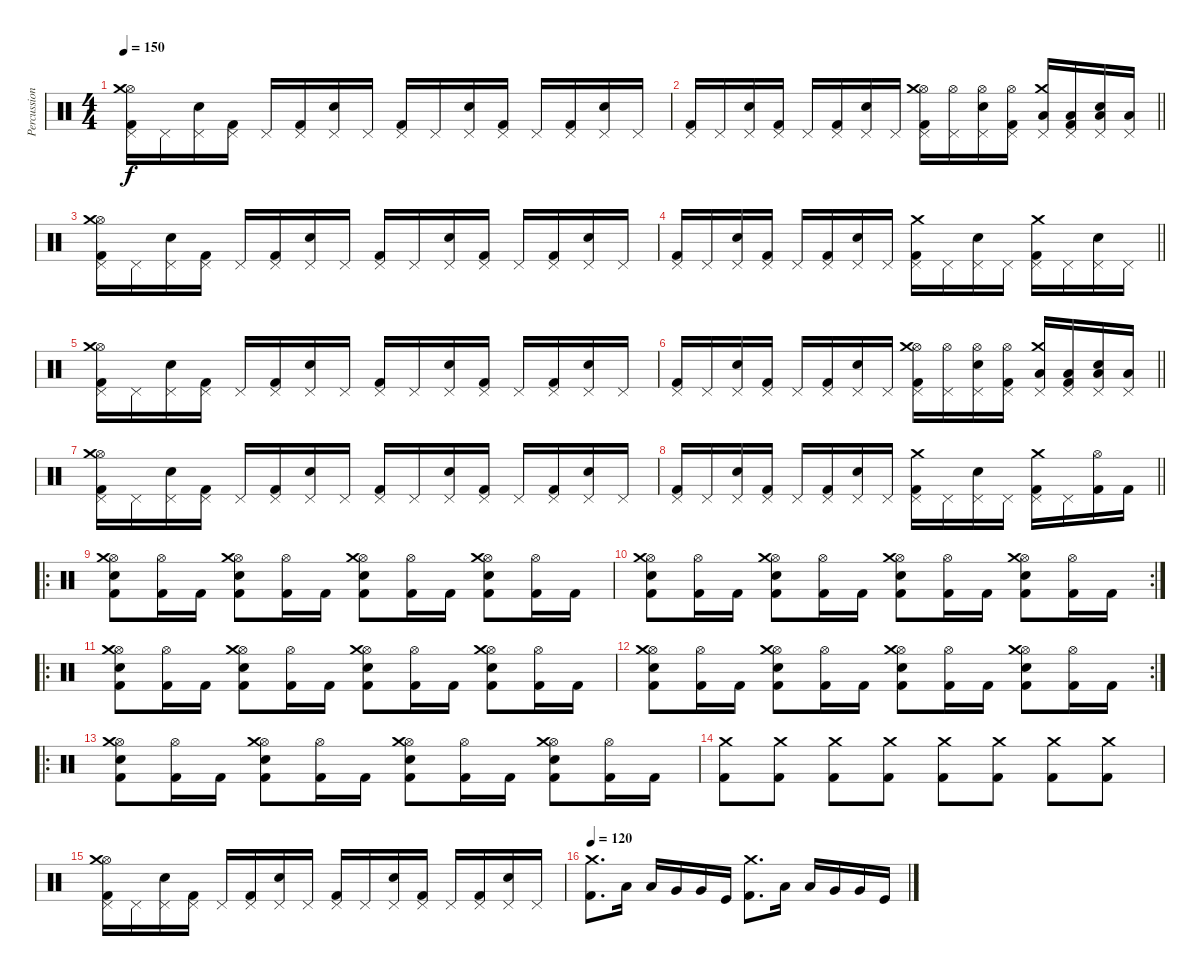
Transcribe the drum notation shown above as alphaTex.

\track ("Percussion" "Percussion") {instrument percussion}
\staff {score}
\articulation defaults
\ts (4 4)
\tempo 150
\clef neutral
\ks c
("Pedal Hi-Hat (hit)" "Kick (hit) 2" "Hi-Hat (open)" "Crash medium (hit)").16{dy f} "Pedal Hi-Hat (hit)".16 ("Pedal Hi-Hat (hit)" "Snare (hit) 2").16 ("Pedal Hi-Hat (hit)" "Kick (hit) 2").16 "Pedal Hi-Hat (hit)".16 ("Pedal Hi-Hat (hit)" "Kick (hit) 2").16 ("Pedal Hi-Hat (hit)" "Snare (hit) 2").16 "Pedal Hi-Hat (hit)".16 ("Pedal Hi-Hat (hit)" "Kick (hit) 2").16 "Pedal Hi-Hat (hit)".16 ("Pedal Hi-Hat (hit)" "Snare (hit) 2").16 ("Pedal Hi-Hat (hit)" "Kick (hit) 2").16 "Pedal Hi-Hat (hit)".16 ("Pedal Hi-Hat (hit)" "Kick (hit) 2").16 ("Pedal Hi-Hat (hit)" "Snare (hit) 2").16 "Pedal Hi-Hat (hit)".16 |
\barLineRight lightlight
("Pedal Hi-Hat (hit)" "Kick (hit) 2").16 "Pedal Hi-Hat (hit)".16 ("Pedal Hi-Hat (hit)" "Snare (hit) 2").16 ("Pedal Hi-Hat (hit)" "Kick (hit) 2").16 "Pedal Hi-Hat (hit)".16 ("Pedal Hi-Hat (hit)" "Kick (hit) 2").16 ("Pedal Hi-Hat (hit)" "Snare (hit) 2").16 "Pedal Hi-Hat (hit)".16 ("Pedal Hi-Hat (hit)" "Kick (hit) 2" "Hi-Hat (open)" "Crash medium (hit)").16 ("Pedal Hi-Hat (hit)" "Hi-Hat (open)").16 ("Pedal Hi-Hat (hit)" "Snare (hit) 2" "Hi-Hat (open)").16 ("Pedal Hi-Hat (hit)" "Kick (hit) 2" "Hi-Hat (open)").16 ("Pedal Hi-Hat (hit)" "Low Tom (hit)" "Crash medium (hit)").16 ("Pedal Hi-Hat (hit)" "Kick (hit) 2" "Low Tom (hit)").16 ("Pedal Hi-Hat (hit)" "Snare (hit) 2" "Low Tom (hit)").16 ("Pedal Hi-Hat (hit)" "Low Tom (hit)").16 |
("Pedal Hi-Hat (hit)" "Kick (hit) 2" "Hi-Hat (open)" "Crash medium (hit)").16 "Pedal Hi-Hat (hit)".16 ("Pedal Hi-Hat (hit)" "Snare (hit) 2").16 ("Pedal Hi-Hat (hit)" "Kick (hit) 2").16 "Pedal Hi-Hat (hit)".16 ("Pedal Hi-Hat (hit)" "Kick (hit) 2").16 ("Pedal Hi-Hat (hit)" "Snare (hit) 2").16 "Pedal Hi-Hat (hit)".16 ("Pedal Hi-Hat (hit)" "Kick (hit) 2").16 "Pedal Hi-Hat (hit)".16 ("Pedal Hi-Hat (hit)" "Snare (hit) 2").16 ("Pedal Hi-Hat (hit)" "Kick (hit) 2").16 "Pedal Hi-Hat (hit)".16 ("Pedal Hi-Hat (hit)" "Kick (hit) 2").16 ("Pedal Hi-Hat (hit)" "Snare (hit) 2").16 "Pedal Hi-Hat (hit)".16 |
\barLineRight lightlight
("Pedal Hi-Hat (hit)" "Kick (hit) 2").16 "Pedal Hi-Hat (hit)".16 ("Pedal Hi-Hat (hit)" "Snare (hit) 2").16 ("Pedal Hi-Hat (hit)" "Kick (hit) 2").16 "Pedal Hi-Hat (hit)".16 ("Pedal Hi-Hat (hit)" "Kick (hit) 2").16 ("Pedal Hi-Hat (hit)" "Snare (hit) 2").16 "Pedal Hi-Hat (hit)".16 ("Pedal Hi-Hat (hit)" "Kick (hit) 2" "Crash medium (hit)").16 "Pedal Hi-Hat (hit)".16 ("Pedal Hi-Hat (hit)" "Snare (hit) 2").16 "Pedal Hi-Hat (hit)".16 ("Pedal Hi-Hat (hit)" "Kick (hit) 2" "Crash medium (hit)").16 "Pedal Hi-Hat (hit)".16 ("Pedal Hi-Hat (hit)" "Snare (hit) 2").16 "Pedal Hi-Hat (hit)".16 |
("Pedal Hi-Hat (hit)" "Kick (hit) 2" "Hi-Hat (open)" "Crash medium (hit)").16 "Pedal Hi-Hat (hit)".16 ("Pedal Hi-Hat (hit)" "Snare (hit) 2").16 ("Pedal Hi-Hat (hit)" "Kick (hit) 2").16 "Pedal Hi-Hat (hit)".16 ("Pedal Hi-Hat (hit)" "Kick (hit) 2").16 ("Pedal Hi-Hat (hit)" "Snare (hit) 2").16 "Pedal Hi-Hat (hit)".16 ("Pedal Hi-Hat (hit)" "Kick (hit) 2").16 "Pedal Hi-Hat (hit)".16 ("Pedal Hi-Hat (hit)" "Snare (hit) 2").16 ("Pedal Hi-Hat (hit)" "Kick (hit) 2").16 "Pedal Hi-Hat (hit)".16 ("Pedal Hi-Hat (hit)" "Kick (hit) 2").16 ("Pedal Hi-Hat (hit)" "Snare (hit) 2").16 "Pedal Hi-Hat (hit)".16 |
\barLineRight lightlight
("Pedal Hi-Hat (hit)" "Kick (hit) 2").16 "Pedal Hi-Hat (hit)".16 ("Pedal Hi-Hat (hit)" "Snare (hit) 2").16 ("Pedal Hi-Hat (hit)" "Kick (hit) 2").16 "Pedal Hi-Hat (hit)".16 ("Pedal Hi-Hat (hit)" "Kick (hit) 2").16 ("Pedal Hi-Hat (hit)" "Snare (hit) 2").16 "Pedal Hi-Hat (hit)".16 ("Pedal Hi-Hat (hit)" "Kick (hit) 2" "Hi-Hat (open)" "Crash medium (hit)").16 ("Pedal Hi-Hat (hit)" "Hi-Hat (open)").16 ("Pedal Hi-Hat (hit)" "Snare (hit) 2" "Hi-Hat (open)").16 ("Pedal Hi-Hat (hit)" "Kick (hit) 2" "Hi-Hat (open)").16 ("Pedal Hi-Hat (hit)" "Low Tom (hit)" "Crash medium (hit)").16 ("Pedal Hi-Hat (hit)" "Kick (hit) 2" "Low Tom (hit)").16 ("Pedal Hi-Hat (hit)" "Snare (hit) 2" "Low Tom (hit)").16 ("Pedal Hi-Hat (hit)" "Low Tom (hit)").16 |
("Pedal Hi-Hat (hit)" "Kick (hit) 2" "Hi-Hat (open)" "Crash medium (hit)").16 "Pedal Hi-Hat (hit)".16 ("Pedal Hi-Hat (hit)" "Snare (hit) 2").16 ("Pedal Hi-Hat (hit)" "Kick (hit) 2").16 "Pedal Hi-Hat (hit)".16 ("Pedal Hi-Hat (hit)" "Kick (hit) 2").16 ("Pedal Hi-Hat (hit)" "Snare (hit) 2").16 "Pedal Hi-Hat (hit)".16 ("Pedal Hi-Hat (hit)" "Kick (hit) 2").16 "Pedal Hi-Hat (hit)".16 ("Pedal Hi-Hat (hit)" "Snare (hit) 2").16 ("Pedal Hi-Hat (hit)" "Kick (hit) 2").16 "Pedal Hi-Hat (hit)".16 ("Pedal Hi-Hat (hit)" "Kick (hit) 2").16 ("Pedal Hi-Hat (hit)" "Snare (hit) 2").16 "Pedal Hi-Hat (hit)".16 |
\barLineRight lightlight
("Pedal Hi-Hat (hit)" "Kick (hit) 2").16 "Pedal Hi-Hat (hit)".16 ("Pedal Hi-Hat (hit)" "Snare (hit) 2").16 ("Pedal Hi-Hat (hit)" "Kick (hit) 2").16 "Pedal Hi-Hat (hit)".16 ("Pedal Hi-Hat (hit)" "Kick (hit) 2").16 ("Pedal Hi-Hat (hit)" "Snare (hit) 2").16 "Pedal Hi-Hat (hit)".16 ("Pedal Hi-Hat (hit)" "Kick (hit) 2" "Crash medium (hit)").16 "Pedal Hi-Hat (hit)".16 ("Pedal Hi-Hat (hit)" "Snare (hit) 2").16 "Pedal Hi-Hat (hit)".16 ("Pedal Hi-Hat (hit)" "Kick (hit) 2" "Crash medium (hit)").16 "Pedal Hi-Hat (hit)".16 ("Hi-Hat (open)" "Kick (hit) 2").16 "Kick (hit) 2".16 |
\ro
("Hi-Hat (open)" "Kick (hit) 2" "Snare (hit) 2" "Crash medium (hit)").8 ("Hi-Hat (open)" "Kick (hit) 2").16 "Kick (hit) 2".16 ("Hi-Hat (open)" "Kick (hit) 2" "Snare (hit) 2" "Crash medium (hit)").8 ("Hi-Hat (open)" "Kick (hit) 2").16 "Kick (hit) 2".16 ("Hi-Hat (open)" "Kick (hit) 2" "Snare (hit) 2" "Crash medium (hit)").8 ("Hi-Hat (open)" "Kick (hit) 2").16 "Kick (hit) 2".16 ("Hi-Hat (open)" "Kick (hit) 2" "Snare (hit) 2" "Crash medium (hit)").8 ("Hi-Hat (open)" "Kick (hit) 2").16 "Kick (hit) 2".16 |
\rc 2
("Hi-Hat (open)" "Kick (hit) 2" "Snare (hit) 2" "Crash medium (hit)").8 ("Hi-Hat (open)" "Kick (hit) 2").16 "Kick (hit) 2".16 ("Hi-Hat (open)" "Kick (hit) 2" "Snare (hit) 2" "Crash medium (hit)").8 ("Hi-Hat (open)" "Kick (hit) 2").16 "Kick (hit) 2".16 ("Hi-Hat (open)" "Kick (hit) 2" "Snare (hit) 2" "Crash medium (hit)").8 ("Hi-Hat (open)" "Kick (hit) 2").16 "Kick (hit) 2".16 ("Hi-Hat (open)" "Kick (hit) 2" "Snare (hit) 2" "Crash medium (hit)").8 ("Hi-Hat (open)" "Kick (hit) 2").16 "Kick (hit) 2".16 |
\ro
("Hi-Hat (open)" "Kick (hit) 2" "Snare (hit) 2" "Crash medium (hit)").8 ("Hi-Hat (open)" "Kick (hit) 2").16 "Kick (hit) 2".16 ("Hi-Hat (open)" "Kick (hit) 2" "Snare (hit) 2" "Crash medium (hit)").8 ("Hi-Hat (open)" "Kick (hit) 2").16 "Kick (hit) 2".16 ("Hi-Hat (open)" "Kick (hit) 2" "Snare (hit) 2" "Crash medium (hit)").8 ("Hi-Hat (open)" "Kick (hit) 2").16 "Kick (hit) 2".16 ("Hi-Hat (open)" "Kick (hit) 2" "Snare (hit) 2" "Crash medium (hit)").8 ("Hi-Hat (open)" "Kick (hit) 2").16 "Kick (hit) 2".16 |
\rc 2
("Hi-Hat (open)" "Kick (hit) 2" "Snare (hit) 2" "Crash medium (hit)").8 ("Hi-Hat (open)" "Kick (hit) 2").16 "Kick (hit) 2".16 ("Hi-Hat (open)" "Kick (hit) 2" "Snare (hit) 2" "Crash medium (hit)").8 ("Hi-Hat (open)" "Kick (hit) 2").16 "Kick (hit) 2".16 ("Hi-Hat (open)" "Kick (hit) 2" "Snare (hit) 2" "Crash medium (hit)").8 ("Hi-Hat (open)" "Kick (hit) 2").16 "Kick (hit) 2".16 ("Hi-Hat (open)" "Kick (hit) 2" "Snare (hit) 2" "Crash medium (hit)").8 ("Hi-Hat (open)" "Kick (hit) 2").16 "Kick (hit) 2".16 |
\ro
("Hi-Hat (open)" "Kick (hit) 2" "Snare (hit) 2" "Crash medium (hit)").8 ("Hi-Hat (open)" "Kick (hit) 2").16 "Kick (hit) 2".16 ("Hi-Hat (open)" "Kick (hit) 2" "Snare (hit) 2" "Crash medium (hit)").8 ("Hi-Hat (open)" "Kick (hit) 2").16 "Kick (hit) 2".16 ("Hi-Hat (open)" "Kick (hit) 2" "Snare (hit) 2" "Crash medium (hit)").8 ("Hi-Hat (open)" "Kick (hit) 2").16 "Kick (hit) 2".16 ("Hi-Hat (open)" "Kick (hit) 2" "Snare (hit) 2" "Crash medium (hit)").8 ("Hi-Hat (open)" "Kick (hit) 2").16 "Kick (hit) 2".16 |
("Kick (hit) 2" "Crash medium (hit)").8 ("Kick (hit) 2" "Crash medium (hit)").8 ("Kick (hit) 2" "Crash medium (hit)").8 ("Kick (hit) 2" "Crash medium (hit)").8 ("Kick (hit) 2" "Crash medium (hit)").8 ("Kick (hit) 2" "Crash medium (hit)").8 ("Kick (hit) 2" "Crash medium (hit)").8 ("Kick (hit) 2" "Crash medium (hit)").8 |
("Pedal Hi-Hat (hit)" "Kick (hit) 2" "Hi-Hat (open)" "Crash medium (hit)").16 "Pedal Hi-Hat (hit)".16 ("Pedal Hi-Hat (hit)" "Snare (hit) 2").16 ("Pedal Hi-Hat (hit)" "Kick (hit) 2").16 "Pedal Hi-Hat (hit)".16 ("Pedal Hi-Hat (hit)" "Kick (hit) 2").16 ("Pedal Hi-Hat (hit)" "Snare (hit) 2").16 "Pedal Hi-Hat (hit)".16 ("Pedal Hi-Hat (hit)" "Kick (hit) 2").16 "Pedal Hi-Hat (hit)".16 ("Pedal Hi-Hat (hit)" "Snare (hit) 2").16 ("Pedal Hi-Hat (hit)" "Kick (hit) 2").16 "Pedal Hi-Hat (hit)".16 ("Pedal Hi-Hat (hit)" "Kick (hit) 2").16 ("Pedal Hi-Hat (hit)" "Snare (hit) 2").16 "Pedal Hi-Hat (hit)".16 |
\tempo 120
("Crash medium (hit)" "Kick (hit) 2").8{d} "Low Tom (hit)".16 "Low Tom (hit)".16 "Very Low Tom (hit)".16 "Very Low Tom (hit)".16 "Kick (hit)".16 ("Crash medium (hit)" "Kick (hit) 2").8{d} "Low Tom (hit)".16 "Low Tom (hit)".16 "Very Low Tom (hit)".16 "Very Low Tom (hit)".16 "Kick (hit)".16
